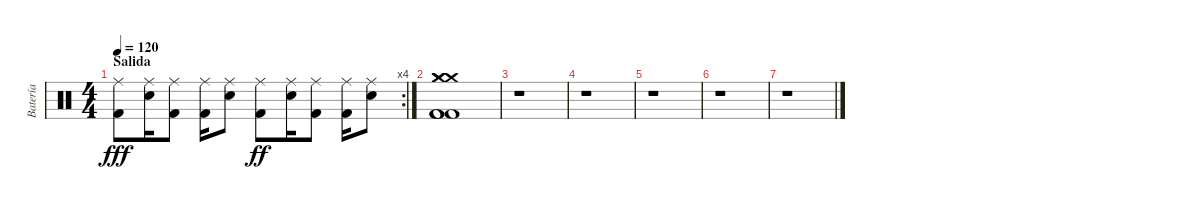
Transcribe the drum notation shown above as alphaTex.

\track ("Batería" "Batería") {instrument percussion}
\staff {score}
\articulation defaults
\rc 4
\ts (4 4)
\section ("" "Salida")
\tempo 120
\clef neutral
\ks c
("Ride (middle)" "Kick (hit) 2").8{dy fff} ("Ride (middle)" "Electric Snare (hit)").16 ("Ride (middle)" "Kick (hit) 2").8 ("Ride (middle)" "Kick (hit) 2").16 ("Ride (middle)" "Electric Snare (hit)").8 ("Ride (middle)" "Kick (hit) 2").8{dy ff} ("Ride (middle)" "Electric Snare (hit)").16 ("Ride (middle)" "Kick (hit) 2").8 ("Ride (middle)" "Kick (hit) 2").16 ("Ride (middle)" "Electric Snare (hit)").8 |
("Crash medium (hit)" "Crash medium (hit)" "Crash medium (hit)" "Kick (hit) 2" "Kick (hit) 2" "Kick (hit) 2").1 |
r.1 |
r.1 |
r.1 |
r.1 |
r.1
